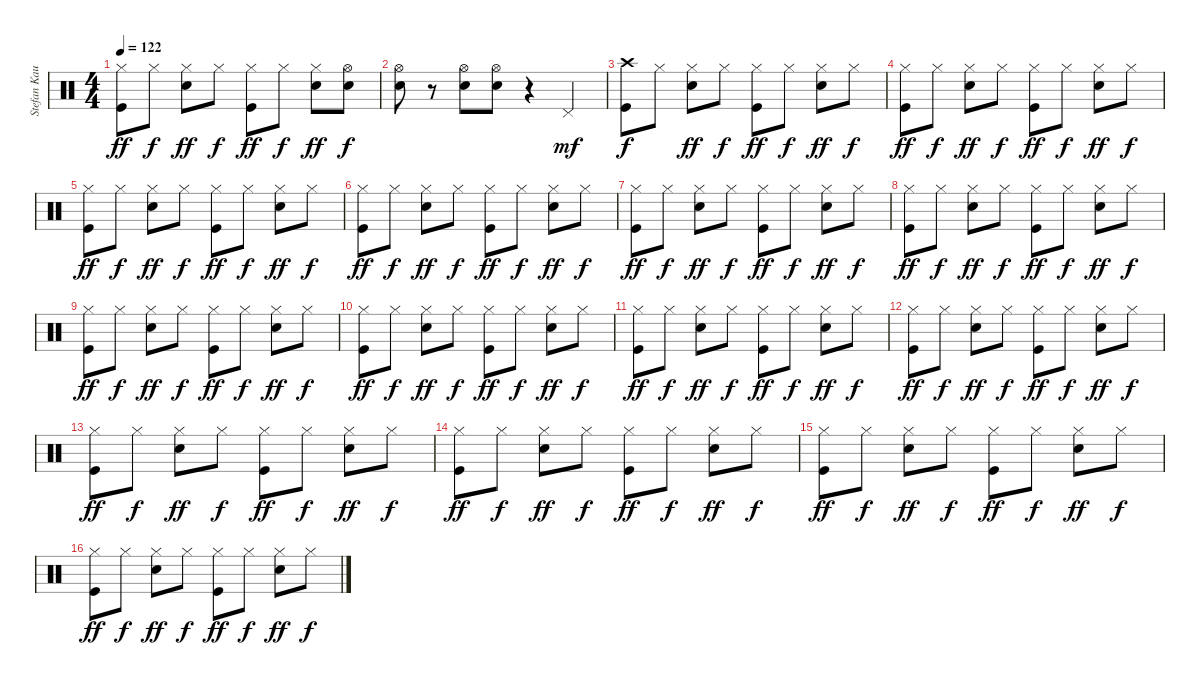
\track ("Stefan Kaufmann" "Stefan Kau") {instrument percussion}
\staff {score}
\articulation defaults
\ts (4 4)
\tempo 122
\clef neutral
\ks c
("Hi-Hat (closed)" "Kick (hit)").8{dy ff} "Hi-Hat (closed)".8{dy f} ("Hi-Hat (closed)" "Snare (hit) 2").8{dy ff} "Hi-Hat (closed)".8{dy f} ("Hi-Hat (closed)" "Kick (hit)").8{dy ff} "Hi-Hat (closed)".8{dy f} ("Hi-Hat (closed)" "Snare (hit) 2").8{dy ff} ("Hi-Hat (open)" "Snare (hit) 2").8{dy f} |
("Hi-Hat (open)" "Snare (hit) 2").8 r.8 ("Hi-Hat (open)" "Snare (hit) 2").8 ("Hi-Hat (open)" "Snare (hit) 2").8 r.4 "Pedal Hi-Hat (hit)".4{dy mf} |
("Crash high (hit)" "Kick (hit)").8{dy f} "Hi-Hat (closed)".8 ("Hi-Hat (closed)" "Snare (hit) 2").8{dy ff} "Hi-Hat (closed)".8{dy f} ("Hi-Hat (closed)" "Kick (hit)").8{dy ff} "Hi-Hat (closed)".8{dy f} ("Hi-Hat (closed)" "Snare (hit) 2").8{dy ff} "Hi-Hat (closed)".8{dy f} |
("Hi-Hat (closed)" "Kick (hit)").8{dy ff} "Hi-Hat (closed)".8{dy f} ("Hi-Hat (closed)" "Snare (hit) 2").8{dy ff} "Hi-Hat (closed)".8{dy f} ("Hi-Hat (closed)" "Kick (hit)").8{dy ff} "Hi-Hat (closed)".8{dy f} ("Hi-Hat (closed)" "Snare (hit) 2").8{dy ff} "Hi-Hat (closed)".8{dy f} |
("Hi-Hat (closed)" "Kick (hit)").8{dy ff} "Hi-Hat (closed)".8{dy f} ("Hi-Hat (closed)" "Snare (hit) 2").8{dy ff} "Hi-Hat (closed)".8{dy f} ("Hi-Hat (closed)" "Kick (hit)").8{dy ff} "Hi-Hat (closed)".8{dy f} ("Hi-Hat (closed)" "Snare (hit) 2").8{dy ff} "Hi-Hat (closed)".8{dy f} |
("Hi-Hat (closed)" "Kick (hit)").8{dy ff} "Hi-Hat (closed)".8{dy f} ("Hi-Hat (closed)" "Snare (hit) 2").8{dy ff} "Hi-Hat (closed)".8{dy f} ("Hi-Hat (closed)" "Kick (hit)").8{dy ff} "Hi-Hat (closed)".8{dy f} ("Hi-Hat (closed)" "Snare (hit) 2").8{dy ff} "Hi-Hat (closed)".8{dy f} |
("Hi-Hat (closed)" "Kick (hit)").8{dy ff} "Hi-Hat (closed)".8{dy f} ("Hi-Hat (closed)" "Snare (hit) 2").8{dy ff} "Hi-Hat (closed)".8{dy f} ("Hi-Hat (closed)" "Kick (hit)").8{dy ff} "Hi-Hat (closed)".8{dy f} ("Hi-Hat (closed)" "Snare (hit) 2").8{dy ff} "Hi-Hat (closed)".8{dy f} |
("Hi-Hat (closed)" "Kick (hit)").8{dy ff} "Hi-Hat (closed)".8{dy f} ("Hi-Hat (closed)" "Snare (hit) 2").8{dy ff} "Hi-Hat (closed)".8{dy f} ("Hi-Hat (closed)" "Kick (hit)").8{dy ff} "Hi-Hat (closed)".8{dy f} ("Hi-Hat (closed)" "Snare (hit) 2").8{dy ff} "Hi-Hat (closed)".8{dy f} |
("Hi-Hat (closed)" "Kick (hit)").8{dy ff} "Hi-Hat (closed)".8{dy f} ("Hi-Hat (closed)" "Snare (hit) 2").8{dy ff} "Hi-Hat (closed)".8{dy f} ("Hi-Hat (closed)" "Kick (hit)").8{dy ff} "Hi-Hat (closed)".8{dy f} ("Hi-Hat (closed)" "Snare (hit) 2").8{dy ff} "Hi-Hat (closed)".8{dy f} |
("Hi-Hat (closed)" "Kick (hit)").8{dy ff} "Hi-Hat (closed)".8{dy f} ("Hi-Hat (closed)" "Snare (hit) 2").8{dy ff} "Hi-Hat (closed)".8{dy f} ("Hi-Hat (closed)" "Kick (hit)").8{dy ff} "Hi-Hat (closed)".8{dy f} ("Hi-Hat (closed)" "Snare (hit) 2").8{dy ff} "Hi-Hat (closed)".8{dy f} |
("Hi-Hat (closed)" "Kick (hit)").8{dy ff} "Hi-Hat (closed)".8{dy f} ("Hi-Hat (closed)" "Snare (hit) 2").8{dy ff} "Hi-Hat (closed)".8{dy f} ("Hi-Hat (closed)" "Kick (hit)").8{dy ff} "Hi-Hat (closed)".8{dy f} ("Hi-Hat (closed)" "Snare (hit) 2").8{dy ff} "Hi-Hat (closed)".8{dy f} |
("Hi-Hat (closed)" "Kick (hit)").8{dy ff} "Hi-Hat (closed)".8{dy f} ("Hi-Hat (closed)" "Snare (hit) 2").8{dy ff} "Hi-Hat (closed)".8{dy f} ("Hi-Hat (closed)" "Kick (hit)").8{dy ff} "Hi-Hat (closed)".8{dy f} ("Hi-Hat (closed)" "Snare (hit) 2").8{dy ff} "Hi-Hat (closed)".8{dy f} |
("Hi-Hat (closed)" "Kick (hit)").8{dy ff} "Hi-Hat (closed)".8{dy f} ("Hi-Hat (closed)" "Snare (hit) 2").8{dy ff} "Hi-Hat (closed)".8{dy f} ("Hi-Hat (closed)" "Kick (hit)").8{dy ff} "Hi-Hat (closed)".8{dy f} ("Hi-Hat (closed)" "Snare (hit) 2").8{dy ff} "Hi-Hat (closed)".8{dy f} |
("Hi-Hat (closed)" "Kick (hit)").8{dy ff} "Hi-Hat (closed)".8{dy f} ("Hi-Hat (closed)" "Snare (hit) 2").8{dy ff} "Hi-Hat (closed)".8{dy f} ("Hi-Hat (closed)" "Kick (hit)").8{dy ff} "Hi-Hat (closed)".8{dy f} ("Hi-Hat (closed)" "Snare (hit) 2").8{dy ff} "Hi-Hat (closed)".8{dy f} |
("Hi-Hat (closed)" "Kick (hit)").8{dy ff} "Hi-Hat (closed)".8{dy f} ("Hi-Hat (closed)" "Snare (hit) 2").8{dy ff} "Hi-Hat (closed)".8{dy f} ("Hi-Hat (closed)" "Kick (hit)").8{dy ff} "Hi-Hat (closed)".8{dy f} ("Hi-Hat (closed)" "Snare (hit) 2").8{dy ff} "Hi-Hat (closed)".8{dy f} |
("Hi-Hat (closed)" "Kick (hit)").8{dy ff} "Hi-Hat (closed)".8{dy f} ("Hi-Hat (closed)" "Snare (hit) 2").8{dy ff} "Hi-Hat (closed)".8{dy f} ("Hi-Hat (closed)" "Kick (hit)").8{dy ff} "Hi-Hat (closed)".8{dy f} ("Hi-Hat (closed)" "Snare (hit) 2").8{dy ff} "Hi-Hat (closed)".8{dy f}
